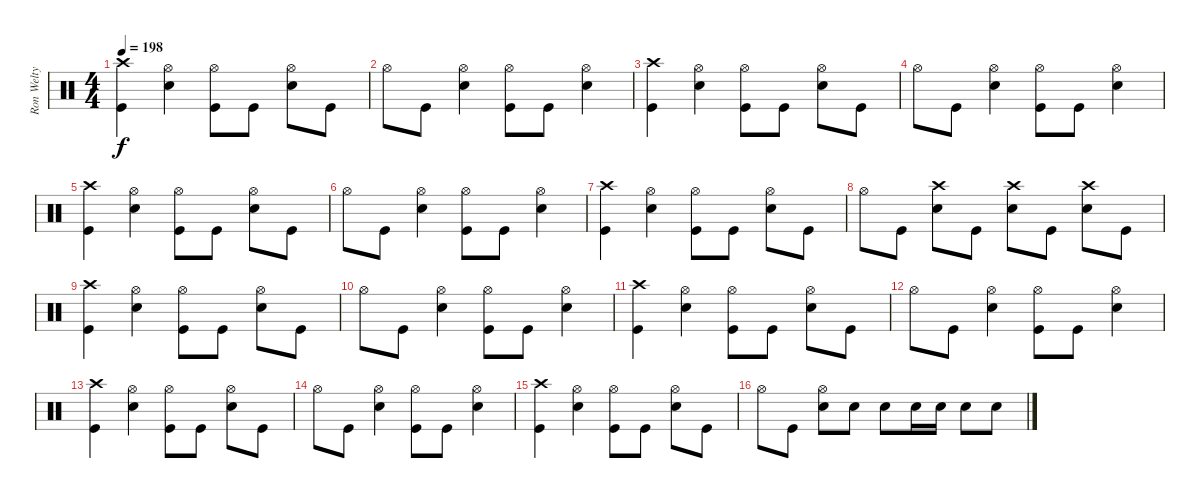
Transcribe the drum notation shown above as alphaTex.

\track ("Ron Welty" "Ron Welty") {instrument percussion}
\staff {score}
\articulation defaults
\ts (4 4)
\tempo 198
\clef neutral
\ks c
("Kick (hit)" "Crash high (hit)").4{dy f} ("Hi-Hat (open)" "Snare (hit) 2").4 ("Hi-Hat (open)" "Kick (hit)").8 "Kick (hit)".8 ("Hi-Hat (open)" "Snare (hit) 2").8 "Kick (hit)".8 |
"Hi-Hat (open)".8 "Kick (hit)".8 ("Hi-Hat (open)" "Snare (hit) 2").4 ("Hi-Hat (open)" "Kick (hit)").8 "Kick (hit)".8 ("Hi-Hat (open)" "Snare (hit) 2").4 |
("Kick (hit)" "Crash high (hit)").4 ("Hi-Hat (open)" "Snare (hit) 2").4 ("Hi-Hat (open)" "Kick (hit)").8 "Kick (hit)".8 ("Hi-Hat (open)" "Snare (hit) 2").8 "Kick (hit)".8 |
"Hi-Hat (open)".8 "Kick (hit)".8 ("Hi-Hat (open)" "Snare (hit) 2").4 ("Hi-Hat (open)" "Kick (hit)").8 "Kick (hit)".8 ("Hi-Hat (open)" "Snare (hit) 2").4 |
("Kick (hit)" "Crash high (hit)").4 ("Hi-Hat (open)" "Snare (hit) 2").4 ("Hi-Hat (open)" "Kick (hit)").8 "Kick (hit)".8 ("Hi-Hat (open)" "Snare (hit) 2").8 "Kick (hit)".8 |
"Hi-Hat (open)".8 "Kick (hit)".8 ("Hi-Hat (open)" "Snare (hit) 2").4 ("Hi-Hat (open)" "Kick (hit)").8 "Kick (hit)".8 ("Hi-Hat (open)" "Snare (hit) 2").4 |
("Kick (hit)" "Crash high (hit)").4 ("Hi-Hat (open)" "Snare (hit) 2").4 ("Hi-Hat (open)" "Kick (hit)").8 "Kick (hit)".8 ("Hi-Hat (open)" "Snare (hit) 2").8 "Kick (hit)".8 |
"Hi-Hat (open)".8 "Kick (hit)".8 ("Snare (hit) 2" "Crash high (hit)").8 "Kick (hit)".8 ("Snare (hit) 2" "Crash high (hit)").8 "Kick (hit)".8 ("Snare (hit) 2" "Crash high (hit)").8 "Kick (hit)".8 |
("Kick (hit)" "Crash high (hit)").4 ("Hi-Hat (open)" "Snare (hit) 2").4 ("Hi-Hat (open)" "Kick (hit)").8 "Kick (hit)".8 ("Hi-Hat (open)" "Snare (hit) 2").8 "Kick (hit)".8 |
"Hi-Hat (open)".8 "Kick (hit)".8 ("Hi-Hat (open)" "Snare (hit) 2").4 ("Hi-Hat (open)" "Kick (hit)").8 "Kick (hit)".8 ("Hi-Hat (open)" "Snare (hit) 2").4 |
("Kick (hit)" "Crash high (hit)").4 ("Hi-Hat (open)" "Snare (hit) 2").4 ("Hi-Hat (open)" "Kick (hit)").8 "Kick (hit)".8 ("Hi-Hat (open)" "Snare (hit) 2").8 "Kick (hit)".8 |
"Hi-Hat (open)".8 "Kick (hit)".8 ("Hi-Hat (open)" "Snare (hit) 2").4 ("Hi-Hat (open)" "Kick (hit)").8 "Kick (hit)".8 ("Hi-Hat (open)" "Snare (hit) 2").4 |
("Kick (hit)" "Crash high (hit)").4 ("Hi-Hat (open)" "Snare (hit) 2").4 ("Hi-Hat (open)" "Kick (hit)").8 "Kick (hit)".8 ("Hi-Hat (open)" "Snare (hit) 2").8 "Kick (hit)".8 |
"Hi-Hat (open)".8 "Kick (hit)".8 ("Hi-Hat (open)" "Snare (hit) 2").4 ("Hi-Hat (open)" "Kick (hit)").8 "Kick (hit)".8 ("Hi-Hat (open)" "Snare (hit) 2").4 |
("Kick (hit)" "Crash high (hit)").4 ("Hi-Hat (open)" "Snare (hit) 2").4 ("Hi-Hat (open)" "Kick (hit)").8 "Kick (hit)".8 ("Hi-Hat (open)" "Snare (hit) 2").8 "Kick (hit)".8 |
"Hi-Hat (open)".8 "Kick (hit)".8 ("Hi-Hat (open)" "Snare (hit) 2").8 "Snare (hit) 2".8 "Snare (hit) 2".8 "Snare (hit) 2".16 "Snare (hit) 2".16 "Snare (hit) 2".8 "Snare (hit) 2".8
